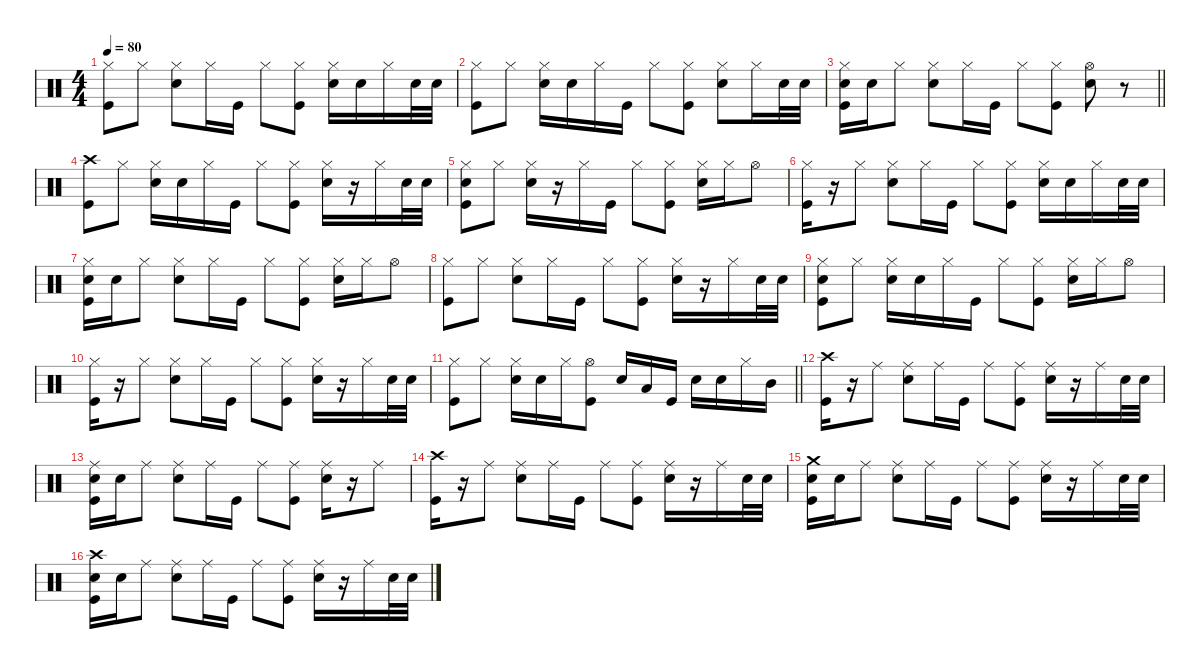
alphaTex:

\defaultSystemsLayout 8
\hideDynamics
\bracketExtendMode groupsimilarinstruments
\singleTrackTrackNamePolicy hidden
\multiTrackTrackNamePolicy hidden
\firstSystemTrackNameMode fullname
\firstSystemTrackNameOrientation horizontal
\otherSystemsTrackNameOrientation horizontal
\track ("Percussion" "drm.") {defaultSystemsLayout 4 instrument percussion}
\staff {score}
\articulation defaults
\ts (4 4)
\tempo 80
\clef neutral
\ks c
("Hi-Hat (closed)" "Kick (hit)").8{dy f} "Hi-Hat (closed)".8 ("Hi-Hat (closed)" "Snare (hit) 2").8 "Hi-Hat (closed)".16 "Kick (hit)".16 "Hi-Hat (closed)".8 ("Hi-Hat (closed)" "Kick (hit)").8 ("Hi-Hat (closed)" "Snare (hit) 2").16 "Snare (hit) 2".16{dy p} "Hi-Hat (closed)".16{dy f} "Snare (hit) 2".32{dy p} "Snare (hit) 2".32 |
("Hi-Hat (closed)" "Kick (hit)").8{dy f} "Hi-Hat (closed)".8 ("Hi-Hat (closed)" "Snare (hit) 2").16 "Snare (hit) 2".16{dy p} "Hi-Hat (closed)".16{dy f} "Kick (hit)".16 "Hi-Hat (closed)".8 ("Hi-Hat (closed)" "Kick (hit)").8 ("Hi-Hat (closed)" "Snare (hit) 2").8 "Hi-Hat (closed)".16 "Snare (hit) 2".32{dy p} "Snare (hit) 2".32 |
\barLineRight lightlight
("Hi-Hat (closed)" "Snare (hit) 2" "Kick (hit)").16{dy f} "Snare (hit) 2".16{dy pp} "Hi-Hat (closed)".8{dy f} ("Hi-Hat (closed)" "Snare (hit) 2").8 "Hi-Hat (closed)".16 "Kick (hit)".16 "Hi-Hat (closed)".8 ("Hi-Hat (closed)" "Kick (hit)").8 ("Hi-Hat (open)" "Snare (hit) 2").8 r.8 |
("Crash high (hit)" "Kick (hit)").8 "Hi-Hat (closed)".8{dy mp} ("Hi-Hat (closed)" "Snare (hit) 2").16{dy f} "Snare (hit) 2".16{dy p} "Hi-Hat (closed)".16{dy f} "Kick (hit)".16 "Hi-Hat (closed)".8 ("Hi-Hat (closed)" "Kick (hit)").8 ("Hi-Hat (closed)" "Snare (hit) 2").16 r.16 "Hi-Hat (closed)".16 "Snare (hit) 2".32{dy p} "Snare (hit) 2".32 |
("Hi-Hat (closed)" "Snare (hit) 2" "Kick (hit)").8{dy f} "Hi-Hat (closed)".8 ("Hi-Hat (closed)" "Snare (hit) 2").16 r.16 "Hi-Hat (closed)".16 "Kick (hit)".16 "Hi-Hat (closed)".8 ("Hi-Hat (closed)" "Kick (hit)").8 ("Hi-Hat (closed)" "Snare (hit) 2").16 "Hi-Hat (closed)".16{dy mp} "Hi-Hat (open)".8{dy f} |
("Hi-Hat (closed)" "Kick (hit)").16 r.16 "Hi-Hat (closed)".8 ("Hi-Hat (closed)" "Snare (hit) 2").8 "Hi-Hat (closed)".16 "Kick (hit)".16 "Hi-Hat (closed)".8 ("Hi-Hat (closed)" "Kick (hit)").8 ("Hi-Hat (closed)" "Snare (hit) 2").16 "Snare (hit) 2".16{dy p} "Hi-Hat (closed)".16{dy f} "Snare (hit) 2".32{dy p} "Snare (hit) 2".32 |
("Hi-Hat (closed)" "Snare (hit) 2" "Kick (hit)").16{dy f} "Snare (hit) 2".16{dy pp} "Hi-Hat (closed)".8{dy f} ("Hi-Hat (closed)" "Snare (hit) 2").8 "Hi-Hat (closed)".16 "Kick (hit)".16 "Hi-Hat (closed)".8 ("Hi-Hat (closed)" "Kick (hit)").8 ("Hi-Hat (closed)" "Snare (hit) 2").16 "Hi-Hat (closed)".16{dy mp} "Hi-Hat (open)".8{dy f} |
("Hi-Hat (closed)" "Kick (hit)").8 "Hi-Hat (closed)".8{dy mp} ("Hi-Hat (closed)" "Snare (hit) 2").8{dy f} "Hi-Hat (closed)".16 "Kick (hit)".16 "Hi-Hat (closed)".8 ("Hi-Hat (closed)" "Kick (hit)").8 ("Hi-Hat (closed)" "Snare (hit) 2").16 r.16 "Hi-Hat (closed)".16 "Snare (hit) 2".32{dy p} "Snare (hit) 2".32 |
("Hi-Hat (closed)" "Snare (hit) 2" "Kick (hit)").8{dy f} "Hi-Hat (closed)".8 ("Hi-Hat (closed)" "Snare (hit) 2").16 "Snare (hit) 2".16{dy p} "Hi-Hat (closed)".16{dy f} "Kick (hit)".16 "Hi-Hat (closed)".8 ("Hi-Hat (closed)" "Kick (hit)").8 ("Hi-Hat (closed)" "Snare (hit) 2").16 "Hi-Hat (closed)".16{dy mp} "Hi-Hat (open)".8{dy f} |
("Hi-Hat (closed)" "Kick (hit)").16 r.16 "Hi-Hat (closed)".8 ("Hi-Hat (closed)" "Snare (hit) 2").8 "Hi-Hat (closed)".16 "Kick (hit)".16 "Hi-Hat (closed)".8 ("Hi-Hat (closed)" "Kick (hit)").8 ("Hi-Hat (closed)" "Snare (hit) 2").16 r.16 "Hi-Hat (closed)".16 "Snare (hit) 2".32{dy p} "Snare (hit) 2".32 |
\barLineRight lightlight
("Hi-Hat (closed)" "Kick (hit)").8{dy f} "Hi-Hat (closed)".8 ("Hi-Hat (closed)" "Snare (hit) 2").16 "Snare (hit) 2".16{dy p} "Hi-Hat (closed)".16{dy f} ("Hi-Hat (open)" "Kick (hit)").8 "Snare (hit) 2".16 "Low Tom (hit)".16{dy mp} "Kick (hit)".16{dy mf} "Snare (hit) 2".16{dy f} "Snare (hit) 2".16{dy p} "Hi-Hat (closed)".16{dy f} "Mid Tom (hit)".16 |
("Crash high (hit)" "Kick (hit)").16 r.16 "Ride (middle)".8 ("Ride (middle)" "Snare (hit) 2").8 "Ride (middle)".16 "Kick (hit)".16 "Ride (middle)".8 ("Ride (middle)" "Kick (hit)").8 ("Ride (middle)" "Snare (hit) 2").16 r.16 "Ride (middle)".16 "Snare (hit) 2".32{dy p} "Snare (hit) 2".32 |
("Ride (middle)" "Snare (hit) 2" "Kick (hit)").16{dy f} "Snare (hit) 2".16{dy p} "Ride (middle)".8{dy f} ("Ride (middle)" "Snare (hit) 2").8 "Ride (middle)".16 "Kick (hit)".16 "Ride (middle)".8 ("Ride (middle)" "Kick (hit)").8 ("Ride (middle)" "Snare (hit) 2").16 r.16 "Ride (middle)".8 |
("Crash high (hit)" "Kick (hit)").16 r.16 "Ride (middle)".8 ("Ride (middle)" "Snare (hit) 2").8 "Ride (middle)".16 "Kick (hit)".16 "Ride (middle)".8 ("Ride (middle)" "Kick (hit)").8 ("Ride (middle)" "Snare (hit) 2").16 r.16 "Ride (middle)".16 "Snare (hit) 2".32{dy p} "Snare (hit) 2".32 |
("Crash medium (hit)" "Snare (hit) 2" "Kick (hit)").16{dy f} "Snare (hit) 2".16{dy p} "Ride (middle)".8{dy f} ("Ride (middle)" "Snare (hit) 2").8 "Ride (middle)".16 "Kick (hit)".16 "Ride (middle)".8 ("Ride (middle)" "Kick (hit)").8 ("Ride (middle)" "Snare (hit) 2").16 r.16 "Ride (middle)".16 "Snare (hit) 2".32{dy p} "Snare (hit) 2".32 |
("Crash high (hit)" "Snare (hit) 2" "Kick (hit)").16{dy f} "Snare (hit) 2".16{dy p} "Ride (middle)".8{dy f} ("Ride (middle)" "Snare (hit) 2").8 "Ride (middle)".16 "Kick (hit)".16 "Ride (middle)".8 ("Ride (middle)" "Kick (hit)").8 ("Ride (middle)" "Snare (hit) 2").16 r.16 "Ride (middle)".16 "Snare (hit) 2".32{dy p} "Snare (hit) 2".32
